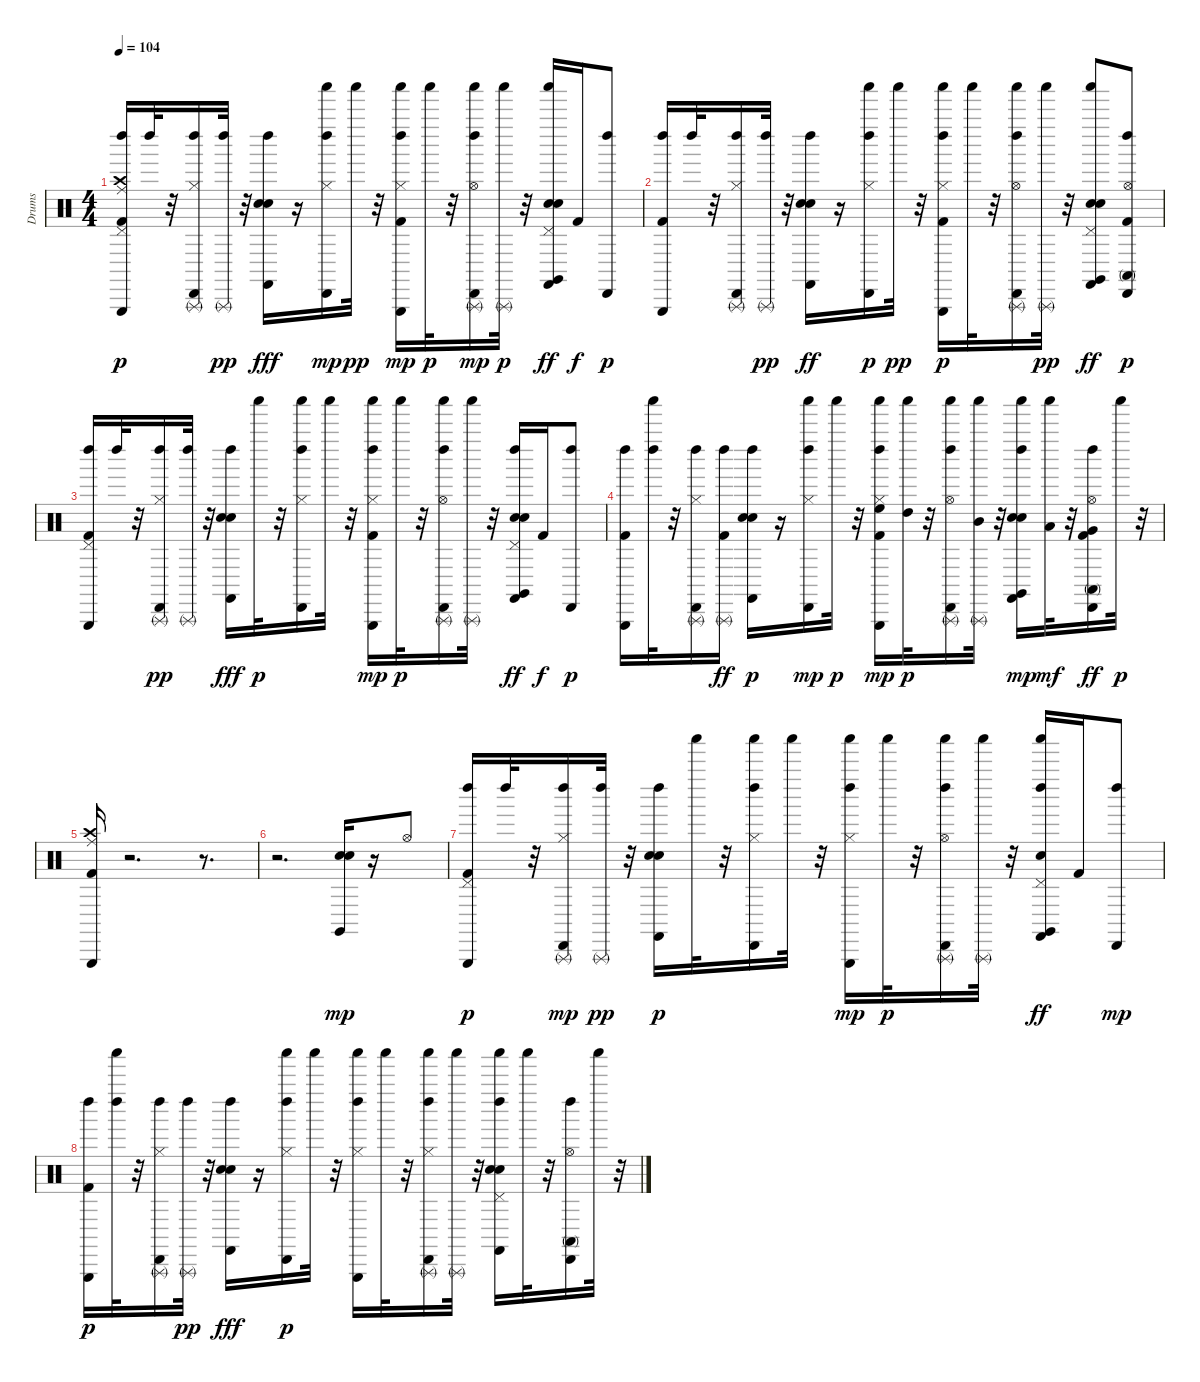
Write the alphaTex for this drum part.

\track ("Drums" "Drums") {instrument percussion}
\staff {score}
\articulation defaults
\ts (4 4)
\tempo 104
\clef neutral
\ks c
("Triangle (hit)" "Left Maraca (hit)" "Crash high (hit)" "Ride (middle)" "Kick (hit) 2" "Pedal Hi-Hat (hit)").16{dy p} "Left Maraca (hit)".32 r.32 ("Cabasa (hit)" "Triangle (rnute)" "Left Maraca (hit)" "Hi-Hat (closed)").16 ("Left Maraca (hit)" "Triangle (rnute)").32{dy pp} r.32 ("Electric Snare (hit)" "Castanets (hit)" "Left Maraca (hit)" "Hand Clap (hit)").16{dy fff} r.16 ("Shaker (hit)" "Hi-Hat (closed)" "Left Maraca (hit)" "Cabasa (hit)").16{dy mp} "Shaker (hit)".32{dy pp} r.32 ("Hi-Hat (closed)" "Shaker (hit)" "Left Maraca (hit)" "Triangle (hit)" "Kick (hit) 2").16{dy mp} "Shaker (hit)".32{dy p} r.32 ("Left Maraca (hit)" "Triangle (rnute)" "Shaker (hit)" "Hi-Hat (open)" "Cabasa (hit)").16{dy mp} ("Triangle (rnute)" "Shaker (hit)").32{dy p} r.32 ("Pedal Hi-Hat (hit)" "Shaker (hit)" "Hand Clap (hit)" "Electric Snare (hit)" "Claves (hit)" "Castanets (hit)").16{dy ff} "Kick (hit) 2".16{dy f} ("Cabasa (hit)" "Left Maraca (hit)").8{dy p} |
("Kick (hit) 2" "Triangle (hit)" "Left Maraca (hit)").16 "Left Maraca (hit)".32 r.32 ("Triangle (rnute)" "Left Maraca (hit)" "Cabasa (hit)" "Hi-Hat (closed)").16 ("Left Maraca (hit)" "Triangle (rnute)").32{dy pp} r.32 ("Electric Snare (hit)" "Left Maraca (hit)" "Hand Clap (hit)" "Castanets (hit)").16{dy ff} r.16 ("Cabasa (hit)" "Hi-Hat (closed)" "Shaker (hit)" "Left Maraca (hit)").16{dy p} "Shaker (hit)".32{dy pp} r.32 ("Hi-Hat (closed)" "Left Maraca (hit)" "Triangle (hit)" "Kick (hit) 2" "Shaker (hit)").16{dy p} "Shaker (hit)".32 r.32 ("Cabasa (hit)" "Triangle (rnute)" "Left Maraca (hit)" "Hi-Hat (open)" "Shaker (hit)").16 ("Shaker (hit)" "Triangle (rnute)").32{dy pp} r.32 ("Hand Clap (hit)" "Castanets (hit)" "Shaker (hit)" "Pedal Hi-Hat (hit)" "Electric Snare (hit)" "Claves (hit)").8{dy ff} ("Cabasa (hit)" "Hi-Hat (open)" "Left Maraca (hit)" "Kick (hit) 2" "Conga high (mute)").8{dy p} |
("Triangle (hit)" "Kick (hit) 2" "Left Maraca (hit)" "Pedal Hi-Hat (hit)").16 "Left Maraca (hit)".32 r.32 ("Cabasa (hit)" "Hi-Hat (closed)" "Triangle (rnute)" "Left Maraca (hit)").16{dy pp} ("Triangle (rnute)" "Left Maraca (hit)").32 r.32 ("Castanets (hit)" "Left Maraca (hit)" "Electric Snare (hit)" "Hand Clap (hit)").16{dy fff} "Shaker (hit)".32{dy p} r.32 ("Cabasa (hit)" "Left Maraca (hit)" "Shaker (hit)" "Hi-Hat (closed)").16 "Shaker (hit)".32 r.32 ("Hi-Hat (closed)" "Shaker (hit)" "Kick (hit) 2" "Left Maraca (hit)" "Triangle (hit)").16{dy mp} "Shaker (hit)".32{dy p} r.32 ("Hi-Hat (open)" "Cabasa (hit)" "Triangle (rnute)" "Shaker (hit)" "Left Maraca (hit)").16 ("Triangle (rnute)" "Shaker (hit)").32 r.32 ("Pedal Hi-Hat (hit)" "Electric Snare (hit)" "Left Maraca (hit)" "Hand Clap (hit)" "Castanets (hit)" "Claves (hit)").16{dy ff} "Kick (hit) 2".16{dy f} ("Cabasa (hit)" "Left Maraca (hit)").8{dy p} |
("Kick (hit) 2" "Triangle (hit)" "Left Maraca (hit)").16 ("Left Maraca (hit)" "Shaker (hit)").32 r.32 ("Cabasa (hit)" "Triangle (rnute)" "Left Maraca (hit)" "Hi-Hat (closed)").16 ("Left Maraca (hit)" "Triangle (rnute)" "Kick (hit) 2").16{dy ff} ("Electric Snare (hit)" "Hand Clap (hit)" "Castanets (hit)" "Left Maraca (hit)").16{dy p} r.16 ("Hi-Hat (closed)" "Shaker (hit)" "Left Maraca (hit)" "Cabasa (hit)").16{dy mp} "Shaker (hit)".32{dy p} r.32 ("Left Maraca (hit)" "Kick (hit) 2" "High Floor Tom (hit)" "Shaker (hit)" "Hi-Hat (closed)" "Triangle (hit)").16{dy mp} ("Shaker (hit)" "High Tom (hit)").32{dy p} r.32 ("Hi-Hat (open)" "Shaker (hit)" "Triangle (rnute)" "Cabasa (hit)" "Left Maraca (hit)").16 ("Mid Tom (hit)" "Triangle (rnute)" "Shaker (hit)").32 r.32 ("Hand Clap (hit)" "Shaker (hit)" "Castanets (hit)" "Left Maraca (hit)" "Claves (hit)" "Electric Snare (hit)").16{dy mp} ("Shaker (hit)" "Low Tom (hit)").32{dy mf} r.32 ("Conga high (mute)" "Hi-Hat (open)" "Left Maraca (hit)" "Very Low Tom (hit)" "Cabasa (hit)" "Kick (hit) 2").16{dy ff} "Shaker (hit)".32{dy p} r.32 |
("Kick (hit) 2" "Triangle (hit)" "Ride (middle)" "Crash high (hit)").16 r.2{d} r.8{d} |
r.2{d} ("Hand Clap (hit)" "Claves (hit)" "Electric Snare (hit)").16{dy mp} r.16 "Hi-Hat (open)".8 |
("Pedal Hi-Hat (hit)" "Kick (hit) 2" "Triangle (hit)" "Left Maraca (hit)").16{dy p} "Left Maraca (hit)".32 r.32 ("Triangle (rnute)" "Left Maraca (hit)" "Hi-Hat (closed)" "Cabasa (hit)").16{dy mp} ("Left Maraca (hit)" "Triangle (rnute)").32{dy pp} r.32 ("Hand Clap (hit)" "Electric Snare (hit)" "Castanets (hit)" "Left Maraca (hit)").16{dy p} "Shaker (hit)".32 r.32 ("Shaker (hit)" "Left Maraca (hit)" "Cabasa (hit)" "Hi-Hat (closed)").16 "Shaker (hit)".32 r.32 ("Hi-Hat (closed)" "Left Maraca (hit)" "Shaker (hit)" "Triangle (hit)").16{dy mp} "Shaker (hit)".32{dy p} r.32 ("Left Maraca (hit)" "Triangle (rnute)" "Shaker (hit)" "Cabasa (hit)" "Hi-Hat (open)").16 ("Triangle (rnute)" "Shaker (hit)").32 r.32 ("Left Maraca (hit)" "Shaker (hit)" "Claves (hit)" "Pedal Hi-Hat (hit)" "Hand Clap (hit)" "Castanets (hit)").16{dy ff} "Kick (hit) 2".16 ("Left Maraca (hit)" "Cabasa (hit)").8{dy mp} |
("Triangle (hit)" "Kick (hit) 2" "Left Maraca (hit)").16{dy p} ("Shaker (hit)" "Left Maraca (hit)").32 r.32 ("Left Maraca (hit)" "Triangle (rnute)" "Cabasa (hit)" "Hi-Hat (closed)").16 ("Left Maraca (hit)" "Triangle (rnute)").32{dy pp} r.32 ("Castanets (hit)" "Electric Snare (hit)" "Left Maraca (hit)" "Hand Clap (hit)").16{dy fff} r.16 ("Hi-Hat (closed)" "Cabasa (hit)" "Shaker (hit)" "Left Maraca (hit)").16{dy p} "Shaker (hit)".32 r.32 ("Hi-Hat (closed)" "Shaker (hit)" "Triangle (hit)" "Left Maraca (hit)").16 "Shaker (hit)".32 r.32 ("Hi-Hat (closed)" "Triangle (rnute)" "Cabasa (hit)" "Shaker (hit)" "Left Maraca (hit)").16 ("Triangle (rnute)" "Shaker (hit)").32 r.32 ("Pedal Hi-Hat (hit)" "Hand Clap (hit)" "Electric Snare (hit)" "Castanets (hit)" "Shaker (hit)" "Left Maraca (hit)").16 "Shaker (hit)".32 r.32 ("Cabasa (hit)" "Left Maraca (hit)" "Conga high (mute)" "Hi-Hat (open)").16 "Shaker (hit)".32 r.32
